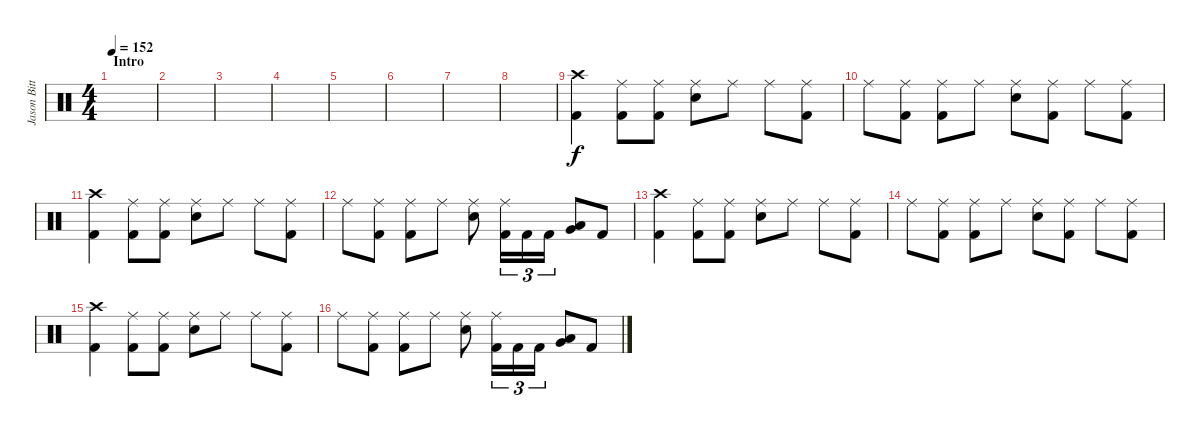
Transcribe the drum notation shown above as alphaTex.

\track ("Jason Bittner" "Jason Bitt") {instrument percussion}
\staff {score}
\articulation defaults
\ts (4 4)
\section ("" "Intro")
\tempo 152
\clef neutral
\ks c
|
|
|
|
|
|
|
|
("Crash high (hit)" "Kick (hit) 2").4 ("Ride (middle)" "Kick (hit) 2").8 ("Ride (middle)" "Kick (hit) 2").8 ("Ride (middle)" "Electric Snare (hit)").8 "Ride (middle)".8 "Ride (middle)".8 ("Ride (middle)" "Kick (hit) 2").8 |
"Ride (middle)".8 ("Ride (middle)" "Kick (hit) 2").8 ("Ride (middle)" "Kick (hit) 2").8 "Ride (middle)".8 ("Ride (middle)" "Electric Snare (hit)").8 ("Ride (middle)" "Kick (hit) 2").8 "Ride (middle)".8 ("Ride (middle)" "Kick (hit) 2").8 |
("Crash high (hit)" "Kick (hit) 2").4 ("Ride (middle)" "Kick (hit) 2").8 ("Ride (middle)" "Kick (hit) 2").8 ("Ride (middle)" "Electric Snare (hit)").8 "Ride (middle)".8 "Ride (middle)".8 ("Ride (middle)" "Kick (hit) 2").8 |
"Ride (middle)".8 ("Ride (middle)" "Kick (hit) 2").8 ("Ride (middle)" "Kick (hit) 2").8 "Ride (middle)".8 ("Ride (middle)" "Electric Snare (hit)").8 ("Ride (middle)" "Kick (hit) 2").16{tu (3 2)} "Kick (hit) 2".16{tu (3 2)} "Kick (hit) 2".16{tu (3 2)} ("Low Tom (hit)" "Very Low Tom (hit)").8 "Kick (hit) 2".8 |
("Crash high (hit)" "Kick (hit) 2").4 ("Ride (middle)" "Kick (hit) 2").8 ("Ride (middle)" "Kick (hit) 2").8 ("Ride (middle)" "Electric Snare (hit)").8 "Ride (middle)".8 "Ride (middle)".8 ("Ride (middle)" "Kick (hit) 2").8 |
"Ride (middle)".8 ("Ride (middle)" "Kick (hit) 2").8 ("Ride (middle)" "Kick (hit) 2").8 "Ride (middle)".8 ("Ride (middle)" "Electric Snare (hit)").8 ("Ride (middle)" "Kick (hit) 2").8 "Ride (middle)".8 ("Ride (middle)" "Kick (hit) 2").8 |
("Crash high (hit)" "Kick (hit) 2").4 ("Ride (middle)" "Kick (hit) 2").8 ("Ride (middle)" "Kick (hit) 2").8 ("Ride (middle)" "Electric Snare (hit)").8 "Ride (middle)".8 "Ride (middle)".8 ("Ride (middle)" "Kick (hit) 2").8 |
"Ride (middle)".8 ("Ride (middle)" "Kick (hit) 2").8 ("Ride (middle)" "Kick (hit) 2").8 "Ride (middle)".8 ("Ride (middle)" "Electric Snare (hit)").8 ("Ride (middle)" "Kick (hit) 2").16{tu (3 2)} "Kick (hit) 2".16{tu (3 2)} "Kick (hit) 2".16{tu (3 2)} ("Low Tom (hit)" "Very Low Tom (hit)").8 "Kick (hit) 2".8
